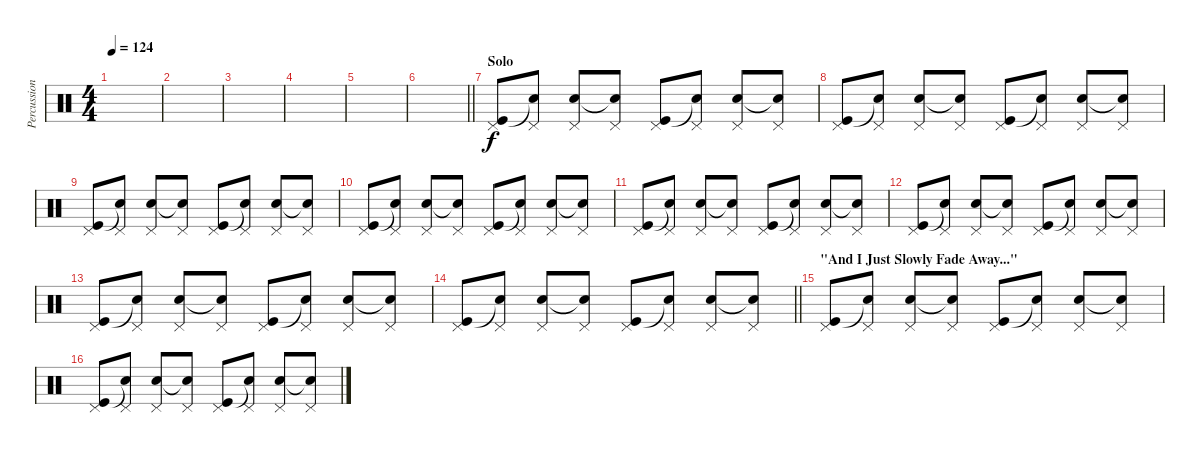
\track ("Percussion" "Percussion") {instrument percussion}
\staff {score}
\articulation defaults
\ts (4 4)
\tempo 124
\clef neutral
\ks c
|
|
|
|
|
\barLineRight lightlight
|
\section ("" "Solo")
("Kick (hit)" "Pedal Hi-Hat (hit)").8 ("Snare (hit)"{t} "Pedal Hi-Hat (hit)").8 ("Snare (hit) 2" "Pedal Hi-Hat (hit)").8 ("Snare (hit)"{t} "Pedal Hi-Hat (hit)").8 ("Kick (hit)" "Pedal Hi-Hat (hit)").8 ("Snare (hit)"{t} "Pedal Hi-Hat (hit)").8 ("Snare (hit) 2" "Pedal Hi-Hat (hit)").8 ("Snare (hit)"{t} "Pedal Hi-Hat (hit)").8 |
("Kick (hit)" "Pedal Hi-Hat (hit)").8 ("Snare (hit)"{t} "Pedal Hi-Hat (hit)").8 ("Snare (hit) 2" "Pedal Hi-Hat (hit)").8 ("Snare (hit)"{t} "Pedal Hi-Hat (hit)").8 ("Kick (hit)" "Pedal Hi-Hat (hit)").8 ("Snare (hit)"{t} "Pedal Hi-Hat (hit)").8 ("Snare (hit) 2" "Pedal Hi-Hat (hit)").8 ("Snare (hit)"{t} "Pedal Hi-Hat (hit)").8 |
("Kick (hit)" "Pedal Hi-Hat (hit)").8 ("Snare (hit)"{t} "Pedal Hi-Hat (hit)").8 ("Snare (hit) 2" "Pedal Hi-Hat (hit)").8 ("Snare (hit)"{t} "Pedal Hi-Hat (hit)").8 ("Kick (hit)" "Pedal Hi-Hat (hit)").8 ("Snare (hit)"{t} "Pedal Hi-Hat (hit)").8 ("Snare (hit) 2" "Pedal Hi-Hat (hit)").8 ("Snare (hit)"{t} "Pedal Hi-Hat (hit)").8 |
("Kick (hit)" "Pedal Hi-Hat (hit)").8 ("Snare (hit)"{t} "Pedal Hi-Hat (hit)").8 ("Snare (hit) 2" "Pedal Hi-Hat (hit)").8 ("Snare (hit)"{t} "Pedal Hi-Hat (hit)").8 ("Kick (hit)" "Pedal Hi-Hat (hit)").8 ("Snare (hit)"{t} "Pedal Hi-Hat (hit)").8 ("Snare (hit) 2" "Pedal Hi-Hat (hit)").8 ("Snare (hit)"{t} "Pedal Hi-Hat (hit)").8 |
("Kick (hit)" "Pedal Hi-Hat (hit)").8 ("Snare (hit)"{t} "Pedal Hi-Hat (hit)").8 ("Snare (hit) 2" "Pedal Hi-Hat (hit)").8 ("Snare (hit)"{t} "Pedal Hi-Hat (hit)").8 ("Kick (hit)" "Pedal Hi-Hat (hit)").8 ("Snare (hit)"{t} "Pedal Hi-Hat (hit)").8 ("Snare (hit) 2" "Pedal Hi-Hat (hit)").8 ("Snare (hit)"{t} "Pedal Hi-Hat (hit)").8 |
("Kick (hit)" "Pedal Hi-Hat (hit)").8 ("Snare (hit)"{t} "Pedal Hi-Hat (hit)").8 ("Snare (hit) 2" "Pedal Hi-Hat (hit)").8 ("Snare (hit)"{t} "Pedal Hi-Hat (hit)").8 ("Kick (hit)" "Pedal Hi-Hat (hit)").8 ("Snare (hit)"{t} "Pedal Hi-Hat (hit)").8 ("Snare (hit) 2" "Pedal Hi-Hat (hit)").8 ("Snare (hit)"{t} "Pedal Hi-Hat (hit)").8 |
("Kick (hit)" "Pedal Hi-Hat (hit)").8 ("Snare (hit)"{t} "Pedal Hi-Hat (hit)").8 ("Snare (hit) 2" "Pedal Hi-Hat (hit)").8 ("Snare (hit)"{t} "Pedal Hi-Hat (hit)").8 ("Kick (hit)" "Pedal Hi-Hat (hit)").8 ("Snare (hit)"{t} "Pedal Hi-Hat (hit)").8 ("Snare (hit) 2" "Pedal Hi-Hat (hit)").8 ("Snare (hit)"{t} "Pedal Hi-Hat (hit)").8 |
\barLineRight lightlight
("Kick (hit)" "Pedal Hi-Hat (hit)").8 ("Snare (hit)"{t} "Pedal Hi-Hat (hit)").8 ("Snare (hit) 2" "Pedal Hi-Hat (hit)").8 ("Snare (hit)"{t} "Pedal Hi-Hat (hit)").8 ("Kick (hit)" "Pedal Hi-Hat (hit)").8 ("Snare (hit)"{t} "Pedal Hi-Hat (hit)").8 ("Snare (hit) 2" "Pedal Hi-Hat (hit)").8 ("Snare (hit)"{t} "Pedal Hi-Hat (hit)").8 |
\section ("" "\"And I Just Slowly Fade Away...\"")
("Kick (hit)" "Pedal Hi-Hat (hit)").8 ("Snare (hit)"{t} "Pedal Hi-Hat (hit)").8 ("Snare (hit) 2" "Pedal Hi-Hat (hit)").8 ("Snare (hit)"{t} "Pedal Hi-Hat (hit)").8 ("Kick (hit)" "Pedal Hi-Hat (hit)").8 ("Snare (hit)"{t} "Pedal Hi-Hat (hit)").8 ("Snare (hit) 2" "Pedal Hi-Hat (hit)").8 ("Snare (hit)"{t} "Pedal Hi-Hat (hit)").8 |
("Kick (hit)" "Pedal Hi-Hat (hit)").8 ("Snare (hit)"{t} "Pedal Hi-Hat (hit)").8 ("Snare (hit) 2" "Pedal Hi-Hat (hit)").8 ("Snare (hit)"{t} "Pedal Hi-Hat (hit)").8 ("Kick (hit)" "Pedal Hi-Hat (hit)").8 ("Snare (hit)"{t} "Pedal Hi-Hat (hit)").8 ("Snare (hit) 2" "Pedal Hi-Hat (hit)").8 ("Snare (hit)"{t} "Pedal Hi-Hat (hit)").8
